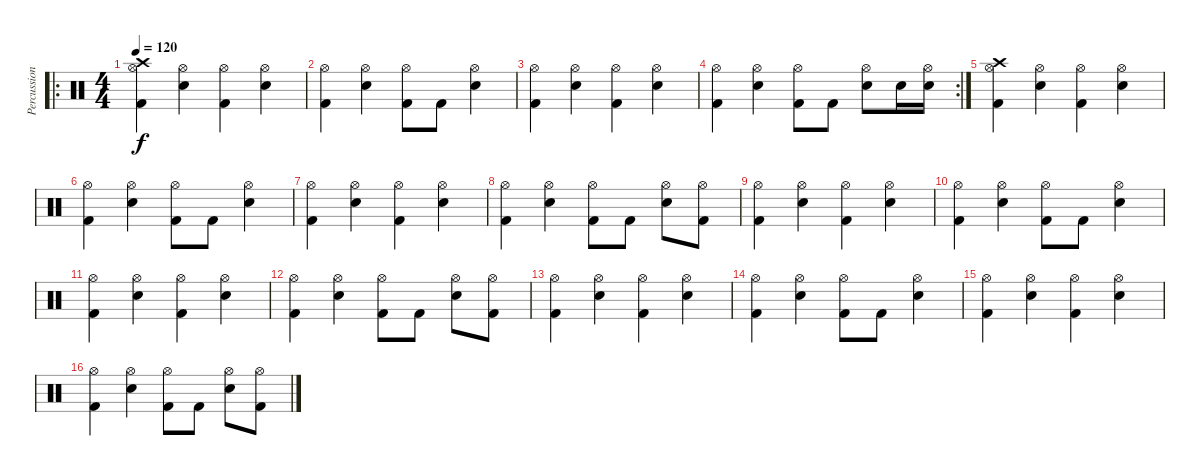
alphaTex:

\track ("Percussion" "Percussion") {instrument percussion}
\staff {score}
\articulation defaults
\ro
\ts (4 4)
\tempo 120
\clef neutral
\ks c
("Crash high (hit)" "Hi-Hat (open)" "Kick (hit) 2").4{dy f volume 16} ("Hi-Hat (open)" "Snare (hit) 2").4 ("Hi-Hat (open)" "Kick (hit) 2").4 ("Hi-Hat (open)" "Snare (hit) 2").4 |
("Hi-Hat (open)" "Kick (hit) 2").4 ("Hi-Hat (open)" "Snare (hit) 2").4 ("Hi-Hat (open)" "Kick (hit) 2").8 "Kick (hit) 2".8 ("Hi-Hat (open)" "Snare (hit) 2").4 |
("Hi-Hat (open)" "Kick (hit) 2").4 ("Hi-Hat (open)" "Snare (hit) 2").4 ("Hi-Hat (open)" "Kick (hit) 2").4 ("Hi-Hat (open)" "Snare (hit) 2").4 |
\rc 2
("Hi-Hat (open)" "Kick (hit) 2").4 ("Hi-Hat (open)" "Snare (hit) 2").4 ("Hi-Hat (open)" "Kick (hit) 2").8 "Kick (hit) 2".8 ("Hi-Hat (open)" "Snare (hit) 2").8 "Snare (hit) 2".16 ("Hi-Hat (open)" "Snare (hit) 2").16 |
("Crash high (hit)" "Hi-Hat (open)" "Kick (hit) 2").4 ("Hi-Hat (open)" "Snare (hit) 2").4 ("Hi-Hat (open)" "Kick (hit) 2").4 ("Hi-Hat (open)" "Snare (hit) 2").4 |
("Hi-Hat (open)" "Kick (hit) 2").4 ("Hi-Hat (open)" "Snare (hit) 2").4 ("Hi-Hat (open)" "Kick (hit) 2").8 "Kick (hit) 2".8 ("Hi-Hat (open)" "Snare (hit) 2").4 |
("Hi-Hat (open)" "Kick (hit) 2").4 ("Hi-Hat (open)" "Snare (hit) 2").4 ("Hi-Hat (open)" "Kick (hit) 2").4 ("Hi-Hat (open)" "Snare (hit) 2").4 |
("Hi-Hat (open)" "Kick (hit) 2").4 ("Hi-Hat (open)" "Snare (hit) 2").4 ("Hi-Hat (open)" "Kick (hit) 2").8 "Kick (hit) 2".8 ("Hi-Hat (open)" "Snare (hit) 2").8 ("Hi-Hat (open)" "Kick (hit) 2").8 |
("Hi-Hat (open)" "Kick (hit) 2").4 ("Hi-Hat (open)" "Snare (hit) 2").4 ("Hi-Hat (open)" "Kick (hit) 2").4 ("Hi-Hat (open)" "Snare (hit) 2").4 |
("Hi-Hat (open)" "Kick (hit) 2").4 ("Hi-Hat (open)" "Snare (hit) 2").4 ("Hi-Hat (open)" "Kick (hit) 2").8 "Kick (hit) 2".8 ("Hi-Hat (open)" "Snare (hit) 2").4 |
("Hi-Hat (open)" "Kick (hit) 2").4 ("Hi-Hat (open)" "Snare (hit) 2").4 ("Hi-Hat (open)" "Kick (hit) 2").4 ("Hi-Hat (open)" "Snare (hit) 2").4 |
("Hi-Hat (open)" "Kick (hit) 2").4 ("Hi-Hat (open)" "Snare (hit) 2").4 ("Hi-Hat (open)" "Kick (hit) 2").8 "Kick (hit) 2".8 ("Hi-Hat (open)" "Snare (hit) 2").8 ("Hi-Hat (open)" "Kick (hit) 2").8 |
("Hi-Hat (open)" "Kick (hit) 2").4 ("Hi-Hat (open)" "Snare (hit) 2").4 ("Hi-Hat (open)" "Kick (hit) 2").4 ("Hi-Hat (open)" "Snare (hit) 2").4 |
("Hi-Hat (open)" "Kick (hit) 2").4 ("Hi-Hat (open)" "Snare (hit) 2").4 ("Hi-Hat (open)" "Kick (hit) 2").8 "Kick (hit) 2".8 ("Hi-Hat (open)" "Snare (hit) 2").4 |
("Hi-Hat (open)" "Kick (hit) 2").4 ("Hi-Hat (open)" "Snare (hit) 2").4 ("Hi-Hat (open)" "Kick (hit) 2").4 ("Hi-Hat (open)" "Snare (hit) 2").4 |
("Hi-Hat (open)" "Kick (hit) 2").4 ("Hi-Hat (open)" "Snare (hit) 2").4 ("Hi-Hat (open)" "Kick (hit) 2").8 "Kick (hit) 2".8 ("Hi-Hat (open)" "Snare (hit) 2").8 ("Hi-Hat (open)" "Kick (hit) 2").8
